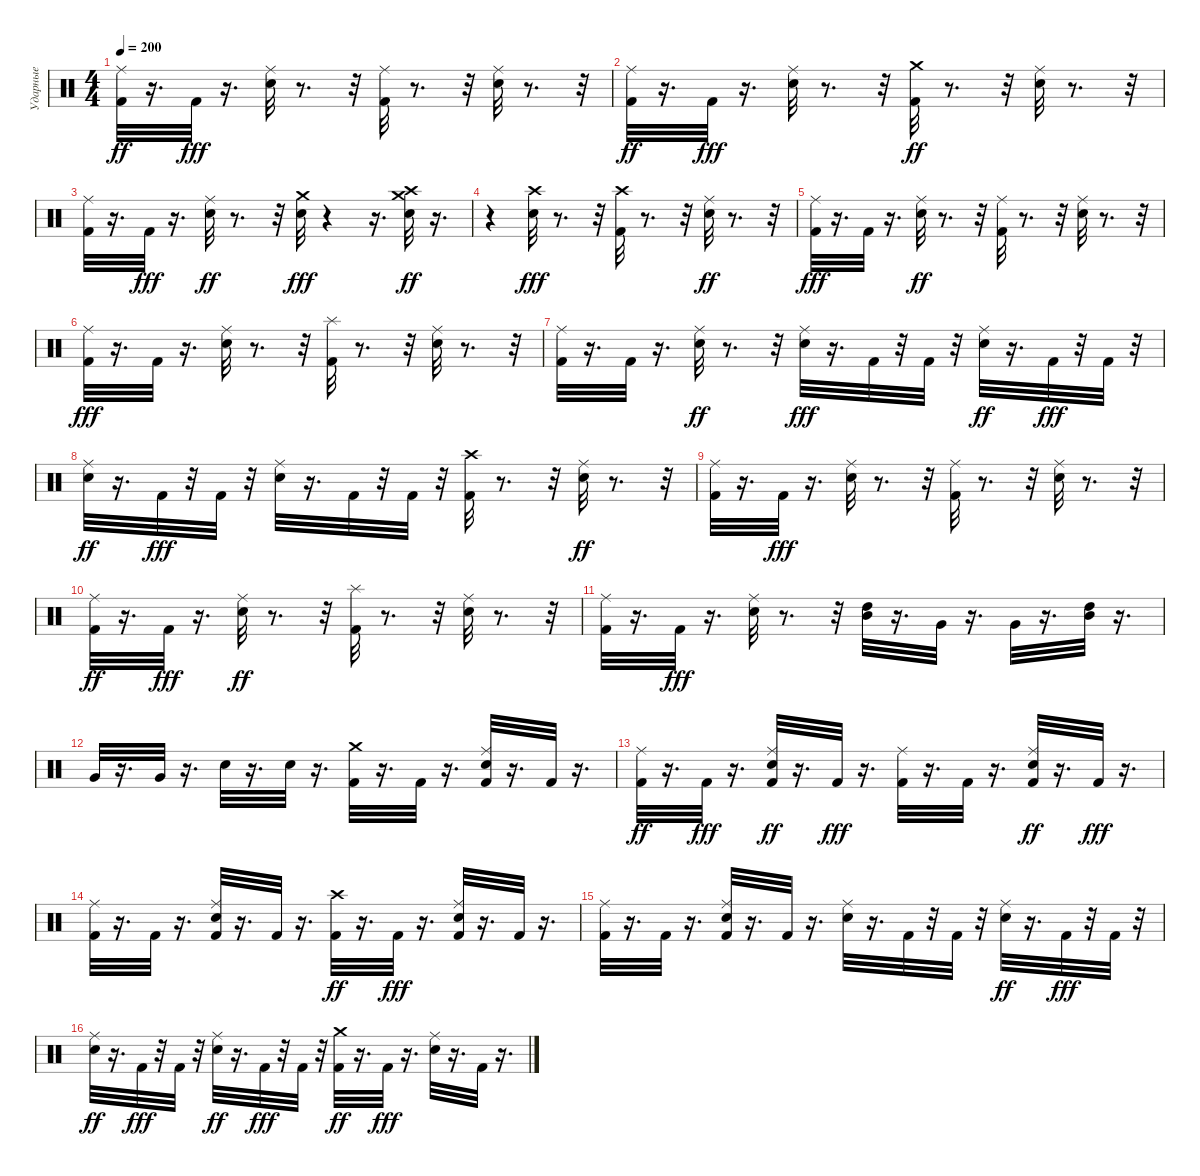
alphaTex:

\track ("Ударные" "Ударные") {instrument percussion}
\staff {score}
\articulation defaults
\ts (4 4)
\tempo 200
\clef neutral
\ks c
("Kick (hit) 2" "Ride (middle)").32{dy ff} r.16{d} "Kick (hit) 2".32{dy fff} r.16{d} ("Ride (middle)" "Snare (hit) 2").32 r.8{d} r.32 ("Ride (middle)" "Kick (hit) 2").32 r.8{d} r.32 ("Ride (middle)" "Snare (hit) 2").32 r.8{d} r.32 |
("Kick (hit) 2" "Ride (middle)").32{dy ff} r.16{d} "Kick (hit) 2".32{dy fff} r.16{d} ("Ride (middle)" "Snare (hit) 2").32 r.8{d} r.32 ("Kick (hit) 2" "Crash medium (hit)").32{dy ff} r.8{d} r.32 ("Snare (hit) 2" "Ride (middle)").32 r.8{d} r.32 |
("Kick (hit) 2" "Ride (middle)").32 r.16{d} "Kick (hit) 2".32{dy fff} r.16{d} ("Snare (hit) 2" "Ride (middle)").32{dy ff} r.8{d} r.32 ("Crash medium (hit)" "Snare (hit) 2").32{dy fff} r.4 r.16{d} ("Crash high (hit)" "Snare (hit) 2" "Crash medium (hit)").32{dy ff} r.16{d} |
r.4 ("Crash high (hit)" "Snare (hit) 2").32{dy fff} r.8{d} r.32 ("Crash high (hit)" "Kick (hit) 2").32 r.8{d} r.32 ("Snare (hit) 2" "Ride (middle)").32{dy ff} r.8{d} r.32 |
("Ride (middle)" "Kick (hit) 2").32{dy fff} r.16{d} "Kick (hit) 2".32 r.16{d} ("Snare (hit) 2" "Ride (middle)").32{dy ff} r.8{d} r.32 ("Kick (hit) 2" "Ride (middle)").32 r.8{d} r.32 ("Snare (hit) 2" "Ride (middle)").32 r.8{d} r.32 |
("Ride (middle)" "Kick (hit) 2").32{dy fff} r.16{d} "Kick (hit) 2".32 r.16{d} ("Ride (middle)" "Snare (hit) 2").32 r.8{d} r.32 ("Splash (hit)" "Kick (hit) 2").32 r.8{d} r.32 ("Ride (middle)" "Snare (hit) 2").32 r.8{d} r.32 |
("Ride (middle)" "Kick (hit) 2").32 r.16{d} "Kick (hit) 2".32 r.16{d} ("Snare (hit) 2" "Ride (middle)").32{dy ff} r.8{d} r.32 ("Ride (middle)" "Snare (hit) 2").32{dy fff} r.16{d} "Kick (hit) 2".32 r.32 "Kick (hit) 2".32 r.32 ("Snare (hit) 2" "Ride (middle)").32{dy ff} r.16{d} "Kick (hit) 2".32{dy fff} r.32 "Kick (hit) 2".32 r.32 |
("Snare (hit) 2" "Ride (middle)").32{dy ff} r.16{d} "Kick (hit) 2".32{dy fff} r.32 "Kick (hit) 2".32 r.32 ("Ride (middle)" "Snare (hit) 2").32 r.16{d} "Kick (hit) 2".32 r.32 "Kick (hit) 2".32 r.32 ("Crash high (hit)" "Kick (hit) 2").32 r.8{d} r.32 ("Snare (hit) 2" "Ride (middle)").32{dy ff} r.8{d} r.32 |
("Kick (hit) 2" "Ride (middle)").32 r.16{d} "Kick (hit) 2".32{dy fff} r.16{d} ("Ride (middle)" "Snare (hit) 2").32 r.8{d} r.32 ("Ride (middle)" "Kick (hit) 2").32 r.8{d} r.32 ("Ride (middle)" "Snare (hit) 2").32 r.8{d} r.32 |
("Kick (hit) 2" "Ride (middle)").32{dy ff} r.16{d} "Kick (hit) 2".32{dy fff} r.16{d} ("Snare (hit) 2" "Ride (middle)").32{dy ff} r.8{d} r.32 ("Kick (hit) 2" "Splash (hit)").32 r.8{d} r.32 ("Snare (hit) 2" "Ride (middle)").32 r.8{d} r.32 |
("Kick (hit) 2" "Ride (middle)").32 r.16{d} "Kick (hit) 2".32{dy fff} r.16{d} ("Ride (middle)" "Snare (hit) 2").32 r.8{d} r.32 ("Mid Tom (hit)" "High Tom (hit)").32 r.16{d} "Very Low Tom (hit)".32 r.16{d} "Very Low Tom (hit)".32 r.16{d} ("Mid Tom (hit)" "High Tom (hit)").32 r.16{d} |
"Very Low Tom (hit)".32 r.16{d} "Very Low Tom (hit)".32 r.16{d} "Snare (hit) 2".32 r.16{d} "Snare (hit) 2".32 r.16{d} ("Crash medium (hit)" "Kick (hit) 2").32 r.16{d} "Kick (hit) 2".32 r.16{d} ("Kick (hit) 2" "Ride (middle)" "Snare (hit) 2").32 r.16{d} "Kick (hit) 2".32 r.16{d} |
("Kick (hit) 2" "Ride (middle)").32{dy ff} r.16{d} "Kick (hit) 2".32{dy fff} r.16{d} ("Kick (hit) 2" "Snare (hit) 2" "Ride (middle)").32{dy ff} r.16{d} "Kick (hit) 2".32{dy fff} r.16{d} ("Ride (middle)" "Kick (hit) 2").32 r.16{d} "Kick (hit) 2".32 r.16{d} ("Kick (hit) 2" "Snare (hit) 2" "Ride (middle)").32{dy ff} r.16{d} "Kick (hit) 2".32{dy fff} r.16{d} |
("Ride (middle)" "Kick (hit) 2").32 r.16{d} "Kick (hit) 2".32 r.16{d} ("Ride (middle)" "Snare (hit) 2" "Kick (hit) 2").32 r.16{d} "Kick (hit) 2".32 r.16{d} ("Kick (hit) 2" "Crash high (hit)").32{dy ff} r.16{d} "Kick (hit) 2".32{dy fff} r.16{d} ("Kick (hit) 2" "Ride (middle)" "Snare (hit) 2").32 r.16{d} "Kick (hit) 2".32 r.16{d} |
("Ride (middle)" "Kick (hit) 2").32 r.16{d} "Kick (hit) 2".32 r.16{d} ("Kick (hit) 2" "Ride (middle)" "Snare (hit) 2").32 r.16{d} "Kick (hit) 2".32 r.16{d} ("Ride (middle)" "Snare (hit) 2").32 r.16{d} "Kick (hit) 2".32 r.32 "Kick (hit) 2".32 r.32 ("Snare (hit) 2" "Ride (middle)").32{dy ff} r.16{d} "Kick (hit) 2".32{dy fff} r.32 "Kick (hit) 2".32 r.32 |
("Snare (hit) 2" "Ride (middle)").32{dy ff} r.16{d} "Kick (hit) 2".32{dy fff} r.32 "Kick (hit) 2".32 r.32 ("Snare (hit) 2" "Ride (middle)").32{dy ff} r.16{d} "Kick (hit) 2".32{dy fff} r.32 "Kick (hit) 2".32 r.32 ("Kick (hit) 2" "Crash medium (hit)").32{dy ff} r.16{d} "Kick (hit) 2".32{dy fff} r.16{d} ("Ride (middle)" "Snare (hit) 2").32 r.16{d} "Kick (hit) 2".32 r.16{d}
